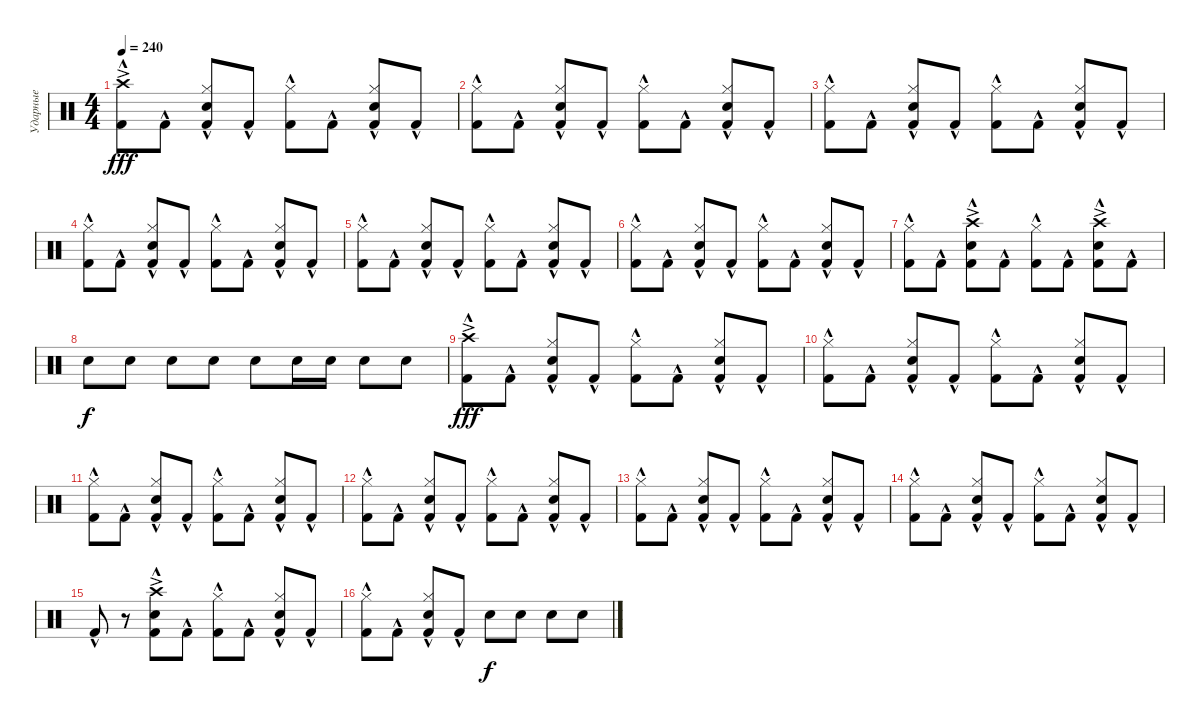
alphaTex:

\track ("Ударные" "Ударные") {instrument percussion}
\staff {score}
\articulation defaults
\ts (4 4)
\tempo 240
\clef neutral
\ks c
("Crash high (hit)"{ac} "Kick (hit) 2"{hac}).8{dy fff} "Kick (hit) 2"{hac}.8 ("Hi-Hat (closed)" "Snare (hit) 2" "Kick (hit) 2"{hac}).8 "Kick (hit) 2"{hac}.8 ("Hi-Hat (closed)" "Kick (hit) 2"{hac}).8 "Kick (hit) 2"{hac}.8 ("Hi-Hat (closed)" "Snare (hit) 2" "Kick (hit) 2"{hac}).8 "Kick (hit) 2"{hac}.8 |
("Hi-Hat (closed)" "Kick (hit) 2"{hac}).8 "Kick (hit) 2"{hac}.8 ("Hi-Hat (closed)" "Snare (hit) 2" "Kick (hit) 2"{hac}).8 "Kick (hit) 2"{hac}.8 ("Hi-Hat (closed)" "Kick (hit) 2"{hac}).8 "Kick (hit) 2"{hac}.8 ("Hi-Hat (closed)" "Snare (hit) 2" "Kick (hit) 2"{hac}).8 "Kick (hit) 2"{hac}.8 |
("Hi-Hat (closed)" "Kick (hit) 2"{hac}).8 "Kick (hit) 2"{hac}.8 ("Hi-Hat (closed)" "Snare (hit) 2" "Kick (hit) 2"{hac}).8 "Kick (hit) 2"{hac}.8 ("Hi-Hat (closed)" "Kick (hit) 2"{hac}).8 "Kick (hit) 2"{hac}.8 ("Hi-Hat (closed)" "Snare (hit) 2" "Kick (hit) 2"{hac}).8 "Kick (hit) 2"{hac}.8 |
("Hi-Hat (closed)" "Kick (hit) 2"{hac}).8 "Kick (hit) 2"{hac}.8 ("Hi-Hat (closed)" "Snare (hit) 2" "Kick (hit) 2"{hac}).8 "Kick (hit) 2"{hac}.8 ("Hi-Hat (closed)" "Kick (hit) 2"{hac}).8 "Kick (hit) 2"{hac}.8 ("Hi-Hat (closed)" "Snare (hit) 2" "Kick (hit) 2"{hac}).8 "Kick (hit) 2"{hac}.8 |
("Hi-Hat (closed)" "Kick (hit) 2"{hac}).8 "Kick (hit) 2"{hac}.8 ("Hi-Hat (closed)" "Snare (hit) 2" "Kick (hit) 2"{hac}).8 "Kick (hit) 2"{hac}.8 ("Hi-Hat (closed)" "Kick (hit) 2"{hac}).8 "Kick (hit) 2"{hac}.8 ("Hi-Hat (closed)" "Snare (hit) 2" "Kick (hit) 2"{hac}).8 "Kick (hit) 2"{hac}.8 |
("Hi-Hat (closed)" "Kick (hit) 2"{hac}).8 "Kick (hit) 2"{hac}.8 ("Hi-Hat (closed)" "Snare (hit) 2" "Kick (hit) 2"{hac}).8 "Kick (hit) 2"{hac}.8 ("Hi-Hat (closed)" "Kick (hit) 2"{hac}).8 "Kick (hit) 2"{hac}.8 ("Hi-Hat (closed)" "Snare (hit) 2" "Kick (hit) 2"{hac}).8 "Kick (hit) 2"{hac}.8 |
("Hi-Hat (closed)" "Kick (hit) 2"{hac}).8 "Kick (hit) 2"{hac}.8 ("Crash high (hit)"{ac} "Snare (hit) 2" "Kick (hit) 2"{hac}).8 "Kick (hit) 2"{hac}.8 ("Hi-Hat (closed)" "Kick (hit) 2"{hac}).8 "Kick (hit) 2"{hac}.8 ("Crash high (hit)"{ac} "Snare (hit) 2" "Kick (hit) 2"{hac}).8 "Kick (hit) 2"{hac}.8 |
"Snare (hit) 2".8{dy f} "Snare (hit) 2".8 "Snare (hit) 2".8 "Snare (hit) 2".8 "Snare (hit) 2".8 "Snare (hit) 2".16 "Snare (hit) 2".16 "Snare (hit) 2".8 "Snare (hit) 2".8 |
("Crash high (hit)"{ac} "Kick (hit) 2"{hac}).8{dy fff} "Kick (hit) 2"{hac}.8 ("Hi-Hat (closed)" "Snare (hit) 2" "Kick (hit) 2"{hac}).8 "Kick (hit) 2"{hac}.8 ("Hi-Hat (closed)" "Kick (hit) 2"{hac}).8 "Kick (hit) 2"{hac}.8 ("Hi-Hat (closed)" "Snare (hit) 2" "Kick (hit) 2"{hac}).8 "Kick (hit) 2"{hac}.8 |
("Hi-Hat (closed)" "Kick (hit) 2"{hac}).8 "Kick (hit) 2"{hac}.8 ("Hi-Hat (closed)" "Snare (hit) 2" "Kick (hit) 2"{hac}).8 "Kick (hit) 2"{hac}.8 ("Hi-Hat (closed)" "Kick (hit) 2"{hac}).8 "Kick (hit) 2"{hac}.8 ("Hi-Hat (closed)" "Snare (hit) 2" "Kick (hit) 2"{hac}).8 "Kick (hit) 2"{hac}.8 |
("Hi-Hat (closed)" "Kick (hit) 2"{hac}).8 "Kick (hit) 2"{hac}.8 ("Hi-Hat (closed)" "Snare (hit) 2" "Kick (hit) 2"{hac}).8 "Kick (hit) 2"{hac}.8 ("Hi-Hat (closed)" "Kick (hit) 2"{hac}).8 "Kick (hit) 2"{hac}.8 ("Hi-Hat (closed)" "Snare (hit) 2" "Kick (hit) 2"{hac}).8 "Kick (hit) 2"{hac}.8 |
("Hi-Hat (closed)" "Kick (hit) 2"{hac}).8 "Kick (hit) 2"{hac}.8 ("Hi-Hat (closed)" "Snare (hit) 2" "Kick (hit) 2"{hac}).8 "Kick (hit) 2"{hac}.8 ("Hi-Hat (closed)" "Kick (hit) 2"{hac}).8 "Kick (hit) 2"{hac}.8 ("Hi-Hat (closed)" "Snare (hit) 2" "Kick (hit) 2"{hac}).8 "Kick (hit) 2"{hac}.8 |
("Hi-Hat (closed)" "Kick (hit) 2"{hac}).8 "Kick (hit) 2"{hac}.8 ("Hi-Hat (closed)" "Snare (hit) 2" "Kick (hit) 2"{hac}).8 "Kick (hit) 2"{hac}.8 ("Hi-Hat (closed)" "Kick (hit) 2"{hac}).8 "Kick (hit) 2"{hac}.8 ("Hi-Hat (closed)" "Snare (hit) 2" "Kick (hit) 2"{hac}).8 "Kick (hit) 2"{hac}.8 |
("Hi-Hat (closed)" "Kick (hit) 2"{hac}).8 "Kick (hit) 2"{hac}.8 ("Hi-Hat (closed)" "Snare (hit) 2" "Kick (hit) 2"{hac}).8 "Kick (hit) 2"{hac}.8 ("Hi-Hat (closed)" "Kick (hit) 2"{hac}).8 "Kick (hit) 2"{hac}.8 ("Hi-Hat (closed)" "Snare (hit) 2" "Kick (hit) 2"{hac}).8 "Kick (hit) 2"{hac}.8 |
"Kick (hit) 2"{hac}.8 r.8 ("Crash high (hit)"{ac} "Snare (hit) 2" "Kick (hit) 2"{hac}).8 "Kick (hit) 2"{hac}.8 ("Hi-Hat (closed)" "Kick (hit) 2"{hac}).8 "Kick (hit) 2"{hac}.8 ("Hi-Hat (closed)" "Snare (hit) 2" "Kick (hit) 2"{hac}).8 "Kick (hit) 2"{hac}.8 |
("Hi-Hat (closed)" "Kick (hit) 2"{hac}).8 "Kick (hit) 2"{hac}.8 ("Hi-Hat (closed)" "Snare (hit) 2" "Kick (hit) 2"{hac}).8 "Kick (hit) 2"{hac}.8 "Snare (hit) 2".8{dy f} "Snare (hit) 2".8 "Snare (hit) 2".8 "Snare (hit) 2".8
